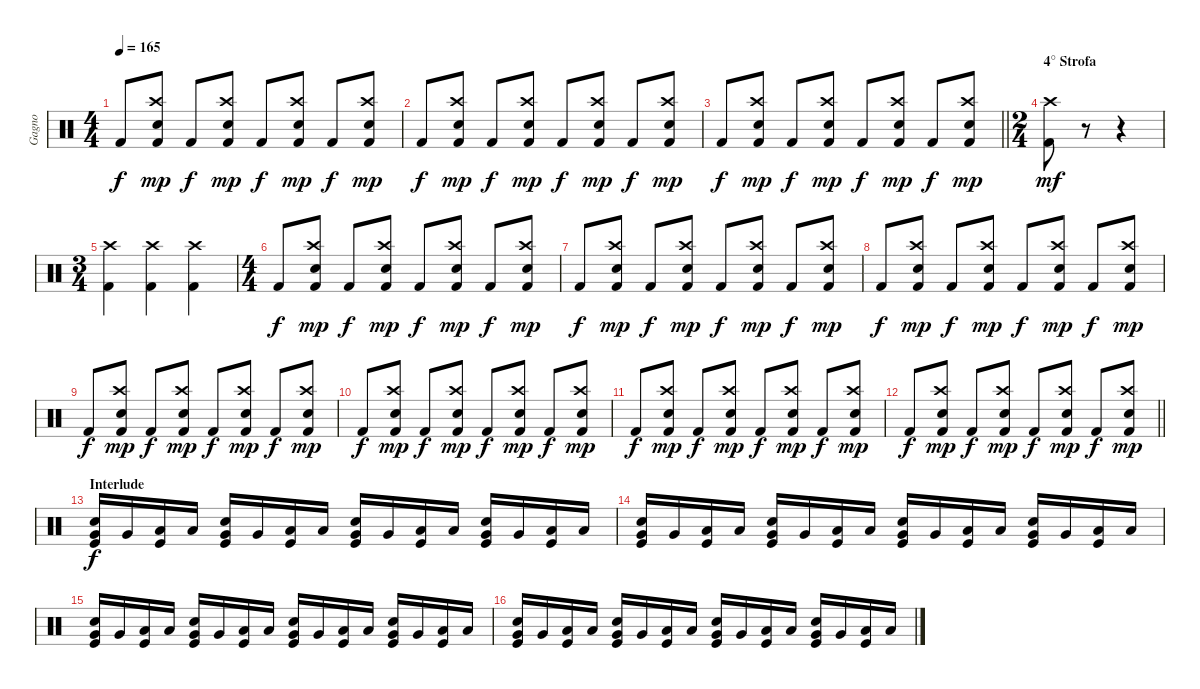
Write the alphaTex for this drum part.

\track ("Gagno" "Gagno") {instrument percussion}
\staff {score}
\articulation defaults
\ts (4 4)
\tempo 165
\clef neutral
\ks c "Kick (hit) 2".8{dy f}
("Crash high (hit)" "Electric Snare (hit)" "Kick (hit) 2").8{dy mp} "Kick (hit) 2".8{dy f} ("Crash high (hit)" "Electric Snare (hit)" "Kick (hit) 2").8{dy mp} "Kick (hit) 2".8{dy f} ("Crash high (hit)" "Electric Snare (hit)" "Kick (hit) 2").8{dy mp} "Kick (hit) 2".8{dy f} ("Crash high (hit)" "Electric Snare (hit)" "Kick (hit) 2").8{dy mp} |
"Kick (hit) 2".8{dy f} ("Crash high (hit)" "Electric Snare (hit)" "Kick (hit) 2").8{dy mp} "Kick (hit) 2".8{dy f} ("Crash high (hit)" "Electric Snare (hit)" "Kick (hit) 2").8{dy mp} "Kick (hit) 2".8{dy f} ("Crash high (hit)" "Electric Snare (hit)" "Kick (hit) 2").8{dy mp} "Kick (hit) 2".8{dy f} ("Crash high (hit)" "Electric Snare (hit)" "Kick (hit) 2").8{dy mp} |
\barLineRight lightlight "Kick (hit) 2".8{dy f}
("Crash high (hit)" "Electric Snare (hit)" "Kick (hit) 2").8{dy mp} "Kick (hit) 2".8{dy f} ("Crash high (hit)" "Electric Snare (hit)" "Kick (hit) 2").8{dy mp} "Kick (hit) 2".8{dy f} ("Crash high (hit)" "Electric Snare (hit)" "Kick (hit) 2").8{dy mp} "Kick (hit) 2".8{dy f} ("Crash high (hit)" "Electric Snare (hit)" "Kick (hit) 2").8{dy mp} |
\ts (2 4)
\section ("" "4° Strofa")
("Crash high (hit)" "Kick (hit) 2").8{dy mf} r.8 r.4 |
\ts (3 4)
("Crash high (hit)" "Kick (hit) 2").4 ("Crash high (hit)" "Kick (hit) 2").4 ("Crash high (hit)" "Kick (hit) 2").4 |
\ts (4 4)
"Kick (hit) 2".8{dy f} ("Crash high (hit)" "Electric Snare (hit)" "Kick (hit) 2").8{dy mp} "Kick (hit) 2".8{dy f} ("Crash high (hit)" "Electric Snare (hit)" "Kick (hit) 2").8{dy mp} "Kick (hit) 2".8{dy f} ("Crash high (hit)" "Electric Snare (hit)" "Kick (hit) 2").8{dy mp} "Kick (hit) 2".8{dy f} ("Crash high (hit)" "Electric Snare (hit)" "Kick (hit) 2").8{dy mp} |
"Kick (hit) 2".8{dy f} ("Crash high (hit)" "Electric Snare (hit)" "Kick (hit) 2").8{dy mp} "Kick (hit) 2".8{dy f} ("Crash high (hit)" "Electric Snare (hit)" "Kick (hit) 2").8{dy mp} "Kick (hit) 2".8{dy f} ("Crash high (hit)" "Electric Snare (hit)" "Kick (hit) 2").8{dy mp} "Kick (hit) 2".8{dy f} ("Crash high (hit)" "Electric Snare (hit)" "Kick (hit) 2").8{dy mp} |
"Kick (hit) 2".8{dy f} ("Crash high (hit)" "Electric Snare (hit)" "Kick (hit) 2").8{dy mp} "Kick (hit) 2".8{dy f} ("Crash high (hit)" "Electric Snare (hit)" "Kick (hit) 2").8{dy mp} "Kick (hit) 2".8{dy f} ("Crash high (hit)" "Electric Snare (hit)" "Kick (hit) 2").8{dy mp} "Kick (hit) 2".8{dy f} ("Crash high (hit)" "Electric Snare (hit)" "Kick (hit) 2").8{dy mp} |
"Kick (hit) 2".8{dy f} ("Crash high (hit)" "Electric Snare (hit)" "Kick (hit) 2").8{dy mp} "Kick (hit) 2".8{dy f} ("Crash high (hit)" "Electric Snare (hit)" "Kick (hit) 2").8{dy mp} "Kick (hit) 2".8{dy f} ("Crash high (hit)" "Electric Snare (hit)" "Kick (hit) 2").8{dy mp} "Kick (hit) 2".8{dy f} ("Crash high (hit)" "Electric Snare (hit)" "Kick (hit) 2").8{dy mp} |
"Kick (hit) 2".8{dy f} ("Crash high (hit)" "Electric Snare (hit)" "Kick (hit) 2").8{dy mp} "Kick (hit) 2".8{dy f} ("Crash high (hit)" "Electric Snare (hit)" "Kick (hit) 2").8{dy mp} "Kick (hit) 2".8{dy f} ("Crash high (hit)" "Electric Snare (hit)" "Kick (hit) 2").8{dy mp} "Kick (hit) 2".8{dy f} ("Crash high (hit)" "Electric Snare (hit)" "Kick (hit) 2").8{dy mp} |
"Kick (hit) 2".8{dy f} ("Crash high (hit)" "Electric Snare (hit)" "Kick (hit) 2").8{dy mp} "Kick (hit) 2".8{dy f} ("Crash high (hit)" "Electric Snare (hit)" "Kick (hit) 2").8{dy mp} "Kick (hit) 2".8{dy f} ("Crash high (hit)" "Electric Snare (hit)" "Kick (hit) 2").8{dy mp} "Kick (hit) 2".8{dy f} ("Crash high (hit)" "Electric Snare (hit)" "Kick (hit) 2").8{dy mp} |
\barLineRight lightlight "Kick (hit) 2".8{dy f}
("Crash high (hit)" "Electric Snare (hit)" "Kick (hit) 2").8{dy mp} "Kick (hit) 2".8{dy f} ("Crash high (hit)" "Electric Snare (hit)" "Kick (hit) 2").8{dy mp} "Kick (hit) 2".8{dy f} ("Crash high (hit)" "Electric Snare (hit)" "Kick (hit) 2").8{dy mp} "Kick (hit) 2".8{dy f} ("Crash high (hit)" "Electric Snare (hit)" "Kick (hit) 2").8{dy mp} |
\section ("" "Interlude")
("Snare (hit) 2" "Very Low Tom (hit)" "Kick (hit)").16{dy f} "Very Low Tom (hit)".16 ("Low Floor Tom (hit)" "Kick (hit)").16 "Low Floor Tom (hit)".16 ("Snare (hit) 2" "Very Low Tom (hit)" "Kick (hit)").16 "Very Low Tom (hit)".16 ("Low Floor Tom (hit)" "Kick (hit)").16 "Low Floor Tom (hit)".16 ("Snare (hit) 2" "Very Low Tom (hit)" "Kick (hit)").16 "Very Low Tom (hit)".16 ("Low Floor Tom (hit)" "Kick (hit)").16 "Low Floor Tom (hit)".16 ("Snare (hit) 2" "Very Low Tom (hit)" "Kick (hit)").16 "Very Low Tom (hit)".16 ("Low Floor Tom (hit)" "Kick (hit)").16 "Low Floor Tom (hit)".16 |
("Snare (hit) 2" "Very Low Tom (hit)" "Kick (hit)").16 "Very Low Tom (hit)".16 ("Low Floor Tom (hit)" "Kick (hit)").16 "Low Floor Tom (hit)".16 ("Snare (hit) 2" "Very Low Tom (hit)" "Kick (hit)").16 "Very Low Tom (hit)".16 ("Low Floor Tom (hit)" "Kick (hit)").16 "Low Floor Tom (hit)".16 ("Snare (hit) 2" "Very Low Tom (hit)" "Kick (hit)").16 "Very Low Tom (hit)".16 ("Low Floor Tom (hit)" "Kick (hit)").16 "Low Floor Tom (hit)".16 ("Snare (hit) 2" "Very Low Tom (hit)" "Kick (hit)").16 "Very Low Tom (hit)".16 ("Low Floor Tom (hit)" "Kick (hit)").16 "Low Floor Tom (hit)".16 |
("Snare (hit) 2" "Very Low Tom (hit)" "Kick (hit)").16 "Very Low Tom (hit)".16 ("Low Floor Tom (hit)" "Kick (hit)").16 "Low Floor Tom (hit)".16 ("Snare (hit) 2" "Very Low Tom (hit)" "Kick (hit)").16 "Very Low Tom (hit)".16 ("Low Floor Tom (hit)" "Kick (hit)").16 "Low Floor Tom (hit)".16 ("Snare (hit) 2" "Very Low Tom (hit)" "Kick (hit)").16 "Very Low Tom (hit)".16 ("Low Floor Tom (hit)" "Kick (hit)").16 "Low Floor Tom (hit)".16 ("Snare (hit) 2" "Very Low Tom (hit)" "Kick (hit)").16 "Very Low Tom (hit)".16 ("Low Floor Tom (hit)" "Kick (hit)").16 "Low Floor Tom (hit)".16 |
("Snare (hit) 2" "Very Low Tom (hit)" "Kick (hit)").16 "Very Low Tom (hit)".16 ("Low Floor Tom (hit)" "Kick (hit)").16 "Low Floor Tom (hit)".16 ("Snare (hit) 2" "Very Low Tom (hit)" "Kick (hit)").16 "Very Low Tom (hit)".16 ("Low Floor Tom (hit)" "Kick (hit)").16 "Low Floor Tom (hit)".16 ("Snare (hit) 2" "Very Low Tom (hit)" "Kick (hit)").16 "Very Low Tom (hit)".16 ("Low Floor Tom (hit)" "Kick (hit)").16 "Low Floor Tom (hit)".16 ("Snare (hit) 2" "Very Low Tom (hit)" "Kick (hit)").16 "Very Low Tom (hit)".16 ("Low Floor Tom (hit)" "Kick (hit)").16 "Low Floor Tom (hit)".16
